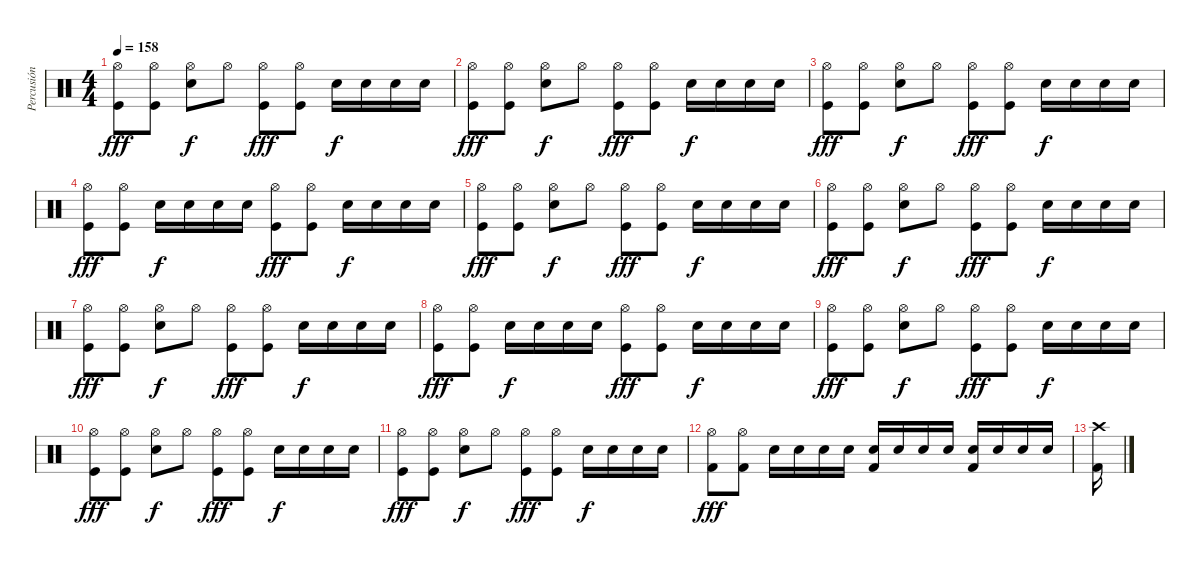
\track ("Percusión" "Percusión") {instrument percussion}
\staff {score}
\articulation defaults
\ts (4 4)
\tempo 158
\clef neutral
\ks c
("Hi-Hat (open)" "Kick (hit)").8{dy fff} ("Hi-Hat (open)" "Kick (hit)").8 ("Hi-Hat (open)" "Electric Snare (hit)").8{dy f} "Hi-Hat (open)".8 ("Hi-Hat (open)" "Kick (hit)").8{dy fff} ("Hi-Hat (open)" "Kick (hit)").8 "Electric Snare (hit)".16{dy f} "Electric Snare (hit)".16 "Electric Snare (hit)".16 "Electric Snare (hit)".16 |
("Hi-Hat (open)" "Kick (hit)").8{dy fff} ("Hi-Hat (open)" "Kick (hit)").8 ("Hi-Hat (open)" "Electric Snare (hit)").8{dy f} "Hi-Hat (open)".8 ("Hi-Hat (open)" "Kick (hit)").8{dy fff} ("Hi-Hat (open)" "Kick (hit)").8 "Electric Snare (hit)".16{dy f} "Electric Snare (hit)".16 "Electric Snare (hit)".16 "Electric Snare (hit)".16 |
("Hi-Hat (open)" "Kick (hit)").8{dy fff} ("Hi-Hat (open)" "Kick (hit)").8 ("Hi-Hat (open)" "Electric Snare (hit)").8{dy f} "Hi-Hat (open)".8 ("Hi-Hat (open)" "Kick (hit)").8{dy fff} ("Hi-Hat (open)" "Kick (hit)").8 "Electric Snare (hit)".16{dy f} "Electric Snare (hit)".16 "Electric Snare (hit)".16 "Electric Snare (hit)".16 |
("Hi-Hat (open)" "Kick (hit)").8{dy fff} ("Hi-Hat (open)" "Kick (hit)").8 "Electric Snare (hit)".16{dy f} "Electric Snare (hit)".16 "Electric Snare (hit)".16 "Electric Snare (hit)".16 ("Hi-Hat (open)" "Kick (hit)").8{dy fff} ("Hi-Hat (open)" "Kick (hit)").8 "Electric Snare (hit)".16{dy f} "Electric Snare (hit)".16 "Electric Snare (hit)".16 "Electric Snare (hit)".16 |
("Hi-Hat (open)" "Kick (hit)").8{dy fff} ("Hi-Hat (open)" "Kick (hit)").8 ("Hi-Hat (open)" "Electric Snare (hit)").8{dy f} "Hi-Hat (open)".8 ("Hi-Hat (open)" "Kick (hit)").8{dy fff} ("Hi-Hat (open)" "Kick (hit)").8 "Electric Snare (hit)".16{dy f} "Electric Snare (hit)".16 "Electric Snare (hit)".16 "Electric Snare (hit)".16 |
("Hi-Hat (open)" "Kick (hit)").8{dy fff} ("Hi-Hat (open)" "Kick (hit)").8 ("Hi-Hat (open)" "Electric Snare (hit)").8{dy f} "Hi-Hat (open)".8 ("Hi-Hat (open)" "Kick (hit)").8{dy fff} ("Hi-Hat (open)" "Kick (hit)").8 "Electric Snare (hit)".16{dy f} "Electric Snare (hit)".16 "Electric Snare (hit)".16 "Electric Snare (hit)".16 |
("Hi-Hat (open)" "Kick (hit)").8{dy fff} ("Hi-Hat (open)" "Kick (hit)").8 ("Hi-Hat (open)" "Electric Snare (hit)").8{dy f} "Hi-Hat (open)".8 ("Hi-Hat (open)" "Kick (hit)").8{dy fff} ("Hi-Hat (open)" "Kick (hit)").8 "Electric Snare (hit)".16{dy f} "Electric Snare (hit)".16 "Electric Snare (hit)".16 "Electric Snare (hit)".16 |
("Hi-Hat (open)" "Kick (hit)").8{dy fff} ("Hi-Hat (open)" "Kick (hit)").8 "Electric Snare (hit)".16{dy f} "Electric Snare (hit)".16 "Electric Snare (hit)".16 "Electric Snare (hit)".16 ("Hi-Hat (open)" "Kick (hit)").8{dy fff} ("Hi-Hat (open)" "Kick (hit)").8 "Electric Snare (hit)".16{dy f} "Electric Snare (hit)".16 "Electric Snare (hit)".16 "Electric Snare (hit)".16 |
("Hi-Hat (open)" "Kick (hit)").8{dy fff} ("Hi-Hat (open)" "Kick (hit)").8 ("Hi-Hat (open)" "Electric Snare (hit)").8{dy f} "Hi-Hat (open)".8 ("Hi-Hat (open)" "Kick (hit)").8{dy fff} ("Hi-Hat (open)" "Kick (hit)").8 "Electric Snare (hit)".16{dy f} "Electric Snare (hit)".16 "Electric Snare (hit)".16 "Electric Snare (hit)".16 |
("Hi-Hat (open)" "Kick (hit)").8{dy fff} ("Hi-Hat (open)" "Kick (hit)").8 ("Hi-Hat (open)" "Electric Snare (hit)").8{dy f} "Hi-Hat (open)".8 ("Hi-Hat (open)" "Kick (hit)").8{dy fff} ("Hi-Hat (open)" "Kick (hit)").8 "Electric Snare (hit)".16{dy f} "Electric Snare (hit)".16 "Electric Snare (hit)".16 "Electric Snare (hit)".16 |
("Hi-Hat (open)" "Kick (hit)").8{dy fff} ("Hi-Hat (open)" "Kick (hit)").8 ("Hi-Hat (open)" "Electric Snare (hit)").8{dy f} "Hi-Hat (open)".8 ("Hi-Hat (open)" "Kick (hit)").8{dy fff} ("Hi-Hat (open)" "Kick (hit)").8 "Electric Snare (hit)".16{dy f} "Electric Snare (hit)".16 "Electric Snare (hit)".16 "Electric Snare (hit)".16 |
("Hi-Hat (open)" "Kick (hit) 2").8{dy fff} ("Hi-Hat (open)" "Kick (hit) 2").8 "Electric Snare (hit)".16 "Electric Snare (hit)".16 "Electric Snare (hit)".16 "Electric Snare (hit)".16 ("Electric Snare (hit)" "Kick (hit) 2").16 "Electric Snare (hit)".16 "Electric Snare (hit)".16 "Electric Snare (hit)".16 ("Electric Snare (hit)" "Kick (hit) 2").16 "Electric Snare (hit)".16 "Electric Snare (hit)".16 "Electric Snare (hit)".16 |
("Crash high (hit)" "Kick (hit) 2").16
